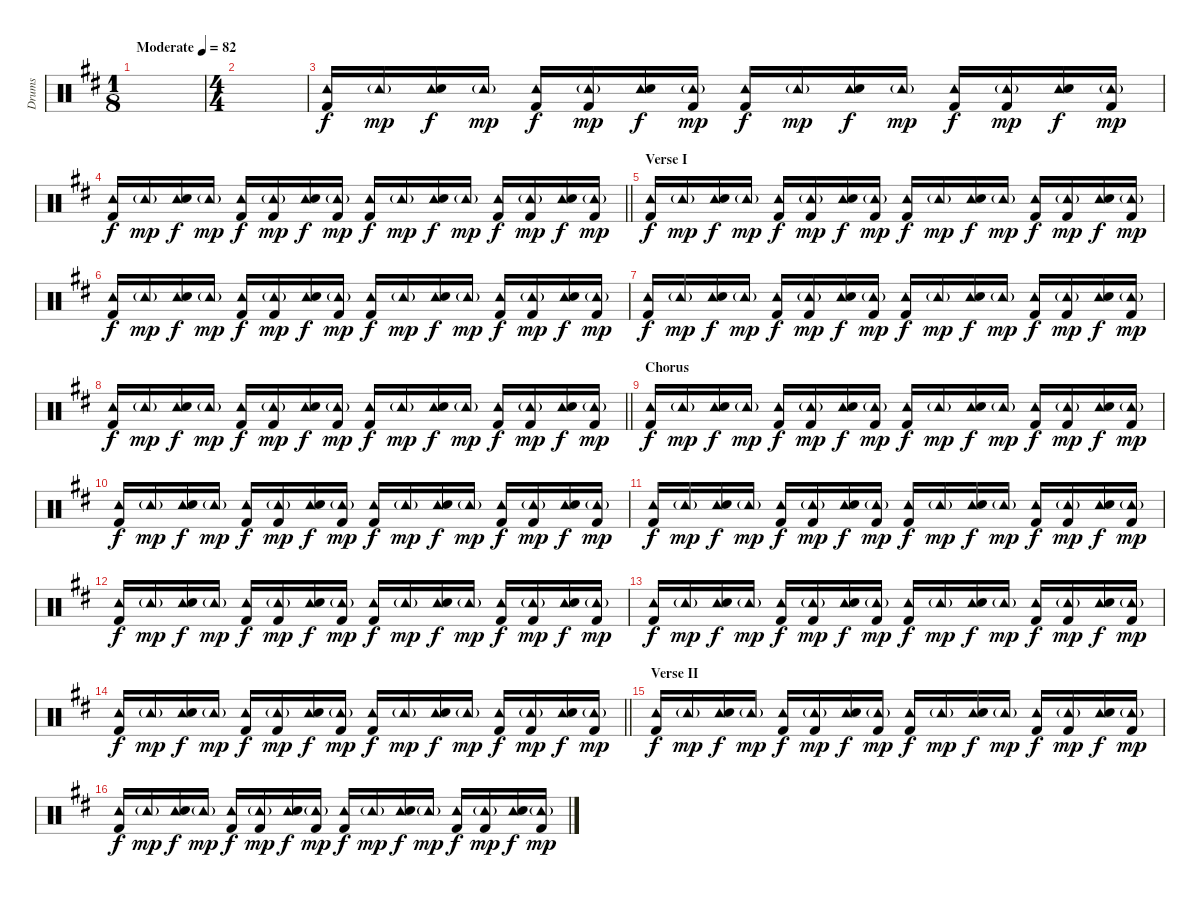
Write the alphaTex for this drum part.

\track ("Drums" "Drums") {instrument percussion}
\staff {score}
\articulation defaults
\ts (1 8)
\tempo (82 "Moderate")
\clef neutral
\ks d
|
\ts (4 4)
|
("Tambourine (hit)" "Kick (hit) 2").16 "Tambourine (hit)"{g}.16{dy mp} ("Tambourine (hit)" "Snare (hit) 2").16{dy f} "Tambourine (hit)"{g}.16{dy mp} ("Tambourine (hit)" "Kick (hit) 2").16{dy f} ("Tambourine (hit)"{g} "Kick (hit) 2").16{dy mp} ("Tambourine (hit)" "Snare (hit) 2").16{dy f} ("Tambourine (hit)"{g} "Kick (hit) 2").16{dy mp} ("Tambourine (hit)" "Kick (hit) 2").16{dy f} "Tambourine (hit)"{g}.16{dy mp} ("Tambourine (hit)" "Snare (hit) 2").16{dy f} "Tambourine (hit)"{g}.16{dy mp} ("Tambourine (hit)" "Kick (hit) 2").16{dy f} ("Tambourine (hit)"{g} "Kick (hit) 2").16{dy mp} ("Tambourine (hit)" "Snare (hit) 2").16{dy f} ("Tambourine (hit)"{g} "Kick (hit) 2").16{dy mp} |
\barLineRight lightlight
("Tambourine (hit)" "Kick (hit) 2").16{dy f} "Tambourine (hit)"{g}.16{dy mp} ("Tambourine (hit)" "Snare (hit) 2").16{dy f} "Tambourine (hit)"{g}.16{dy mp} ("Tambourine (hit)" "Kick (hit) 2").16{dy f} ("Tambourine (hit)"{g} "Kick (hit) 2").16{dy mp} ("Tambourine (hit)" "Snare (hit) 2").16{dy f} ("Tambourine (hit)"{g} "Kick (hit) 2").16{dy mp} ("Tambourine (hit)" "Kick (hit) 2").16{dy f} "Tambourine (hit)"{g}.16{dy mp} ("Tambourine (hit)" "Snare (hit) 2").16{dy f} "Tambourine (hit)"{g}.16{dy mp} ("Tambourine (hit)" "Kick (hit) 2").16{dy f} ("Tambourine (hit)"{g} "Kick (hit) 2").16{dy mp} ("Tambourine (hit)" "Snare (hit) 2").16{dy f} ("Tambourine (hit)"{g} "Kick (hit) 2").16{dy mp} |
\section ("" "Verse I")
("Tambourine (hit)" "Kick (hit) 2").16{dy f} "Tambourine (hit)"{g}.16{dy mp} ("Tambourine (hit)" "Snare (hit) 2").16{dy f} "Tambourine (hit)"{g}.16{dy mp} ("Tambourine (hit)" "Kick (hit) 2").16{dy f} ("Tambourine (hit)"{g} "Kick (hit) 2").16{dy mp} ("Tambourine (hit)" "Snare (hit) 2").16{dy f} ("Tambourine (hit)"{g} "Kick (hit) 2").16{dy mp} ("Tambourine (hit)" "Kick (hit) 2").16{dy f} "Tambourine (hit)"{g}.16{dy mp} ("Tambourine (hit)" "Snare (hit) 2").16{dy f} "Tambourine (hit)"{g}.16{dy mp} ("Tambourine (hit)" "Kick (hit) 2").16{dy f} ("Tambourine (hit)"{g} "Kick (hit) 2").16{dy mp} ("Tambourine (hit)" "Snare (hit) 2").16{dy f} ("Tambourine (hit)"{g} "Kick (hit) 2").16{dy mp} |
("Tambourine (hit)" "Kick (hit) 2").16{dy f} "Tambourine (hit)"{g}.16{dy mp} ("Tambourine (hit)" "Snare (hit) 2").16{dy f} "Tambourine (hit)"{g}.16{dy mp} ("Tambourine (hit)" "Kick (hit) 2").16{dy f} ("Tambourine (hit)"{g} "Kick (hit) 2").16{dy mp} ("Tambourine (hit)" "Snare (hit) 2").16{dy f} ("Tambourine (hit)"{g} "Kick (hit) 2").16{dy mp} ("Tambourine (hit)" "Kick (hit) 2").16{dy f} "Tambourine (hit)"{g}.16{dy mp} ("Tambourine (hit)" "Snare (hit) 2").16{dy f} "Tambourine (hit)"{g}.16{dy mp} ("Tambourine (hit)" "Kick (hit) 2").16{dy f} ("Tambourine (hit)"{g} "Kick (hit) 2").16{dy mp} ("Tambourine (hit)" "Snare (hit) 2").16{dy f} ("Tambourine (hit)"{g} "Kick (hit) 2").16{dy mp} |
("Tambourine (hit)" "Kick (hit) 2").16{dy f} "Tambourine (hit)"{g}.16{dy mp} ("Tambourine (hit)" "Snare (hit) 2").16{dy f} "Tambourine (hit)"{g}.16{dy mp} ("Tambourine (hit)" "Kick (hit) 2").16{dy f} ("Tambourine (hit)"{g} "Kick (hit) 2").16{dy mp} ("Tambourine (hit)" "Snare (hit) 2").16{dy f} ("Tambourine (hit)"{g} "Kick (hit) 2").16{dy mp} ("Tambourine (hit)" "Kick (hit) 2").16{dy f} "Tambourine (hit)"{g}.16{dy mp} ("Tambourine (hit)" "Snare (hit) 2").16{dy f} "Tambourine (hit)"{g}.16{dy mp} ("Tambourine (hit)" "Kick (hit) 2").16{dy f} ("Tambourine (hit)"{g} "Kick (hit) 2").16{dy mp} ("Tambourine (hit)" "Snare (hit) 2").16{dy f} ("Tambourine (hit)"{g} "Kick (hit) 2").16{dy mp} |
\barLineRight lightlight
("Tambourine (hit)" "Kick (hit) 2").16{dy f} "Tambourine (hit)"{g}.16{dy mp} ("Tambourine (hit)" "Snare (hit) 2").16{dy f} "Tambourine (hit)"{g}.16{dy mp} ("Tambourine (hit)" "Kick (hit) 2").16{dy f} ("Tambourine (hit)"{g} "Kick (hit) 2").16{dy mp} ("Tambourine (hit)" "Snare (hit) 2").16{dy f} ("Tambourine (hit)"{g} "Kick (hit) 2").16{dy mp} ("Tambourine (hit)" "Kick (hit) 2").16{dy f} "Tambourine (hit)"{g}.16{dy mp} ("Tambourine (hit)" "Snare (hit) 2").16{dy f} "Tambourine (hit)"{g}.16{dy mp} ("Tambourine (hit)" "Kick (hit) 2").16{dy f} ("Tambourine (hit)"{g} "Kick (hit) 2").16{dy mp} ("Tambourine (hit)" "Snare (hit) 2").16{dy f} ("Tambourine (hit)"{g} "Kick (hit) 2").16{dy mp} |
\section ("" "Chorus")
("Tambourine (hit)" "Kick (hit) 2").16{dy f} "Tambourine (hit)"{g}.16{dy mp} ("Tambourine (hit)" "Snare (hit) 2").16{dy f} "Tambourine (hit)"{g}.16{dy mp} ("Tambourine (hit)" "Kick (hit) 2").16{dy f} ("Tambourine (hit)"{g} "Kick (hit) 2").16{dy mp} ("Tambourine (hit)" "Snare (hit) 2").16{dy f} ("Tambourine (hit)"{g} "Kick (hit) 2").16{dy mp} ("Tambourine (hit)" "Kick (hit) 2").16{dy f} "Tambourine (hit)"{g}.16{dy mp} ("Tambourine (hit)" "Snare (hit) 2").16{dy f} "Tambourine (hit)"{g}.16{dy mp} ("Tambourine (hit)" "Kick (hit) 2").16{dy f} ("Tambourine (hit)"{g} "Kick (hit) 2").16{dy mp} ("Tambourine (hit)" "Snare (hit) 2").16{dy f} ("Tambourine (hit)"{g} "Kick (hit) 2").16{dy mp} |
("Tambourine (hit)" "Kick (hit) 2").16{dy f} "Tambourine (hit)"{g}.16{dy mp} ("Tambourine (hit)" "Snare (hit) 2").16{dy f} "Tambourine (hit)"{g}.16{dy mp} ("Tambourine (hit)" "Kick (hit) 2").16{dy f} ("Tambourine (hit)"{g} "Kick (hit) 2").16{dy mp} ("Tambourine (hit)" "Snare (hit) 2").16{dy f} ("Tambourine (hit)"{g} "Kick (hit) 2").16{dy mp} ("Tambourine (hit)" "Kick (hit) 2").16{dy f} "Tambourine (hit)"{g}.16{dy mp} ("Tambourine (hit)" "Snare (hit) 2").16{dy f} "Tambourine (hit)"{g}.16{dy mp} ("Tambourine (hit)" "Kick (hit) 2").16{dy f} ("Tambourine (hit)"{g} "Kick (hit) 2").16{dy mp} ("Tambourine (hit)" "Snare (hit) 2").16{dy f} ("Tambourine (hit)"{g} "Kick (hit) 2").16{dy mp} |
("Tambourine (hit)" "Kick (hit) 2").16{dy f} "Tambourine (hit)"{g}.16{dy mp} ("Tambourine (hit)" "Snare (hit) 2").16{dy f} "Tambourine (hit)"{g}.16{dy mp} ("Tambourine (hit)" "Kick (hit) 2").16{dy f} ("Tambourine (hit)"{g} "Kick (hit) 2").16{dy mp} ("Tambourine (hit)" "Snare (hit) 2").16{dy f} ("Tambourine (hit)"{g} "Kick (hit) 2").16{dy mp} ("Tambourine (hit)" "Kick (hit) 2").16{dy f} "Tambourine (hit)"{g}.16{dy mp} ("Tambourine (hit)" "Snare (hit) 2").16{dy f} "Tambourine (hit)"{g}.16{dy mp} ("Tambourine (hit)" "Kick (hit) 2").16{dy f} ("Tambourine (hit)"{g} "Kick (hit) 2").16{dy mp} ("Tambourine (hit)" "Snare (hit) 2").16{dy f} ("Tambourine (hit)"{g} "Kick (hit) 2").16{dy mp} |
("Tambourine (hit)" "Kick (hit) 2").16{dy f} "Tambourine (hit)"{g}.16{dy mp} ("Tambourine (hit)" "Snare (hit) 2").16{dy f} "Tambourine (hit)"{g}.16{dy mp} ("Tambourine (hit)" "Kick (hit) 2").16{dy f} ("Tambourine (hit)"{g} "Kick (hit) 2").16{dy mp} ("Tambourine (hit)" "Snare (hit) 2").16{dy f} ("Tambourine (hit)"{g} "Kick (hit) 2").16{dy mp} ("Tambourine (hit)" "Kick (hit) 2").16{dy f} "Tambourine (hit)"{g}.16{dy mp} ("Tambourine (hit)" "Snare (hit) 2").16{dy f} "Tambourine (hit)"{g}.16{dy mp} ("Tambourine (hit)" "Kick (hit) 2").16{dy f} ("Tambourine (hit)"{g} "Kick (hit) 2").16{dy mp} ("Tambourine (hit)" "Snare (hit) 2").16{dy f} ("Tambourine (hit)"{g} "Kick (hit) 2").16{dy mp} |
("Tambourine (hit)" "Kick (hit) 2").16{dy f} "Tambourine (hit)"{g}.16{dy mp} ("Tambourine (hit)" "Snare (hit) 2").16{dy f} "Tambourine (hit)"{g}.16{dy mp} ("Tambourine (hit)" "Kick (hit) 2").16{dy f} ("Tambourine (hit)"{g} "Kick (hit) 2").16{dy mp} ("Tambourine (hit)" "Snare (hit) 2").16{dy f} ("Tambourine (hit)"{g} "Kick (hit) 2").16{dy mp} ("Tambourine (hit)" "Kick (hit) 2").16{dy f} "Tambourine (hit)"{g}.16{dy mp} ("Tambourine (hit)" "Snare (hit) 2").16{dy f} "Tambourine (hit)"{g}.16{dy mp} ("Tambourine (hit)" "Kick (hit) 2").16{dy f} ("Tambourine (hit)"{g} "Kick (hit) 2").16{dy mp} ("Tambourine (hit)" "Snare (hit) 2").16{dy f} ("Tambourine (hit)"{g} "Kick (hit) 2").16{dy mp} |
\barLineRight lightlight
("Tambourine (hit)" "Kick (hit) 2").16{dy f} "Tambourine (hit)"{g}.16{dy mp} ("Tambourine (hit)" "Snare (hit) 2").16{dy f} "Tambourine (hit)"{g}.16{dy mp} ("Tambourine (hit)" "Kick (hit) 2").16{dy f} ("Tambourine (hit)"{g} "Kick (hit) 2").16{dy mp} ("Tambourine (hit)" "Snare (hit) 2").16{dy f} ("Tambourine (hit)"{g} "Kick (hit) 2").16{dy mp} ("Tambourine (hit)" "Kick (hit) 2").16{dy f} "Tambourine (hit)"{g}.16{dy mp} ("Tambourine (hit)" "Snare (hit) 2").16{dy f} "Tambourine (hit)"{g}.16{dy mp} ("Tambourine (hit)" "Kick (hit) 2").16{dy f} ("Tambourine (hit)"{g} "Kick (hit) 2").16{dy mp} ("Tambourine (hit)" "Snare (hit) 2").16{dy f} ("Tambourine (hit)"{g} "Kick (hit) 2").16{dy mp} |
\section ("" "Verse II")
("Tambourine (hit)" "Kick (hit) 2").16{dy f} "Tambourine (hit)"{g}.16{dy mp} ("Tambourine (hit)" "Snare (hit) 2").16{dy f} "Tambourine (hit)"{g}.16{dy mp} ("Tambourine (hit)" "Kick (hit) 2").16{dy f} ("Tambourine (hit)"{g} "Kick (hit) 2").16{dy mp} ("Tambourine (hit)" "Snare (hit) 2").16{dy f} ("Tambourine (hit)"{g} "Kick (hit) 2").16{dy mp} ("Tambourine (hit)" "Kick (hit) 2").16{dy f} "Tambourine (hit)"{g}.16{dy mp} ("Tambourine (hit)" "Snare (hit) 2").16{dy f} "Tambourine (hit)"{g}.16{dy mp} ("Tambourine (hit)" "Kick (hit) 2").16{dy f} ("Tambourine (hit)"{g} "Kick (hit) 2").16{dy mp} ("Tambourine (hit)" "Snare (hit) 2").16{dy f} ("Tambourine (hit)"{g} "Kick (hit) 2").16{dy mp} |
("Tambourine (hit)" "Kick (hit) 2").16{dy f} "Tambourine (hit)"{g}.16{dy mp} ("Tambourine (hit)" "Snare (hit) 2").16{dy f} "Tambourine (hit)"{g}.16{dy mp} ("Tambourine (hit)" "Kick (hit) 2").16{dy f} ("Tambourine (hit)"{g} "Kick (hit) 2").16{dy mp} ("Tambourine (hit)" "Snare (hit) 2").16{dy f} ("Tambourine (hit)"{g} "Kick (hit) 2").16{dy mp} ("Tambourine (hit)" "Kick (hit) 2").16{dy f} "Tambourine (hit)"{g}.16{dy mp} ("Tambourine (hit)" "Snare (hit) 2").16{dy f} "Tambourine (hit)"{g}.16{dy mp} ("Tambourine (hit)" "Kick (hit) 2").16{dy f} ("Tambourine (hit)"{g} "Kick (hit) 2").16{dy mp} ("Tambourine (hit)" "Snare (hit) 2").16{dy f} ("Tambourine (hit)"{g} "Kick (hit) 2").16{dy mp}
